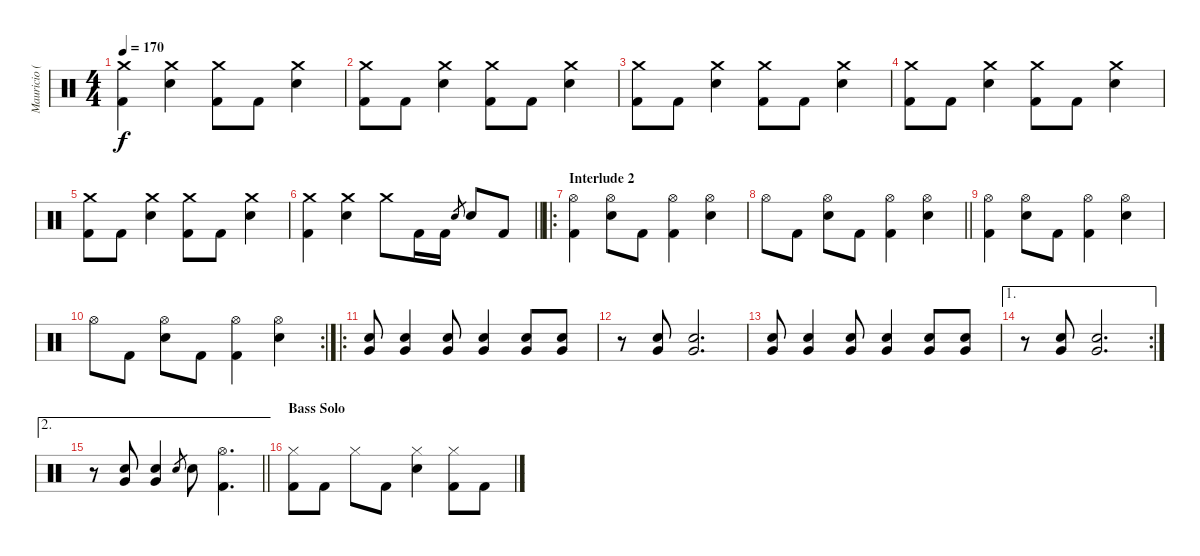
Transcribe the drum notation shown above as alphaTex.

\track ("Mauricio (Drum)" "Mauricio (") {instrument percussion}
\staff {score}
\articulation defaults
\ts (4 4)
\tempo 170
\clef neutral
\ks c
("Crash medium (hit)" "Kick (hit) 2").4{dy f} ("Crash medium (hit)" "Snare (hit) 2").4 ("Crash medium (hit)" "Kick (hit) 2").8 "Kick (hit) 2".8 ("Crash medium (hit)" "Snare (hit) 2").4 |
("Crash medium (hit)" "Kick (hit) 2").8 "Kick (hit) 2".8 ("Crash medium (hit)" "Snare (hit) 2").4 ("Crash medium (hit)" "Kick (hit) 2").8 "Kick (hit) 2".8 ("Crash medium (hit)" "Snare (hit) 2").4 |
("Crash medium (hit)" "Kick (hit) 2").8 "Kick (hit) 2".8 ("Crash medium (hit)" "Snare (hit) 2").4 ("Crash medium (hit)" "Kick (hit) 2").8 "Kick (hit) 2".8 ("Crash medium (hit)" "Snare (hit) 2").4 |
("Crash medium (hit)" "Kick (hit) 2").8 "Kick (hit) 2".8 ("Crash medium (hit)" "Snare (hit) 2").4 ("Crash medium (hit)" "Kick (hit) 2").8 "Kick (hit) 2".8 ("Crash medium (hit)" "Snare (hit) 2").4 |
("Crash medium (hit)" "Kick (hit) 2").8 "Kick (hit) 2".8 ("Crash medium (hit)" "Snare (hit) 2").4 ("Crash medium (hit)" "Kick (hit) 2").8 "Kick (hit) 2".8 ("Crash medium (hit)" "Snare (hit) 2").4 |
\barLineRight lightlight
("Crash medium (hit)" "Kick (hit) 2").4 ("Crash medium (hit)" "Snare (hit) 2").4 "Crash medium (hit)".8 "Kick (hit) 2".16 "Kick (hit) 2".16 "Snare (hit) 2".8{gr} "Snare (hit) 2".8 "Kick (hit) 2".8 |
\ro
\section ("" "Interlude 2")
("Hi-Hat (open)" "Kick (hit) 2").4 ("Hi-Hat (open)" "Snare (hit) 2").8 "Kick (hit) 2".8 ("Hi-Hat (open)" "Kick (hit) 2").4 ("Hi-Hat (open)" "Snare (hit) 2").4 |
\barLineRight lightlight "Hi-Hat (open)".8 "Kick (hit) 2".8
("Hi-Hat (open)" "Snare (hit) 2").8 "Kick (hit) 2".8 ("Hi-Hat (open)" "Kick (hit) 2").4 ("Hi-Hat (open)" "Snare (hit) 2").4 |
("Hi-Hat (open)" "Kick (hit) 2").4 ("Hi-Hat (open)" "Snare (hit) 2").8 "Kick (hit) 2".8 ("Hi-Hat (open)" "Kick (hit) 2").4 ("Hi-Hat (open)" "Snare (hit) 2").4 |
\rc 2 "Hi-Hat (open)".8 "Kick (hit) 2".8
("Hi-Hat (open)" "Snare (hit) 2").8 "Kick (hit) 2".8 ("Hi-Hat (open)" "Kick (hit) 2").4 ("Hi-Hat (open)" "Snare (hit) 2").4 |
\ro
("Very Low Tom (hit)" "Snare (hit) 2").8 ("Very Low Tom (hit)" "Snare (hit) 2").4 ("Very Low Tom (hit)" "Snare (hit) 2").8 ("Very Low Tom (hit)" "Snare (hit) 2").4 ("Very Low Tom (hit)" "Snare (hit) 2").8 ("Very Low Tom (hit)" "Snare (hit) 2").8 |
r.8 ("Very Low Tom (hit)" "Snare (hit) 2").8 ("Very Low Tom (hit)" "Snare (hit) 2").2{d} |
("Very Low Tom (hit)" "Snare (hit) 2").8 ("Very Low Tom (hit)" "Snare (hit) 2").4 ("Very Low Tom (hit)" "Snare (hit) 2").8 ("Very Low Tom (hit)" "Snare (hit) 2").4 ("Very Low Tom (hit)" "Snare (hit) 2").8 ("Very Low Tom (hit)" "Snare (hit) 2").8 |
\ae 1
\rc 2
r.8 ("Very Low Tom (hit)" "Snare (hit) 2").8 ("Very Low Tom (hit)" "Snare (hit) 2").2{d} |
\ae 2
\barLineRight lightlight
r.8 ("Very Low Tom (hit)" "Snare (hit) 2").8 ("Very Low Tom (hit)" "Snare (hit) 2").4 "Snare (hit) 2".8{gr} "Snare (hit) 2".8 ("Hi-Hat (open)" "Kick (hit) 2").4{d} |
\section ("" "Bass Solo")
("Hi-Hat (closed)" "Kick (hit) 2").8 "Kick (hit) 2".8 "Hi-Hat (closed)".8 "Kick (hit) 2".8 ("Hi-Hat (closed)" "Snare (hit) 2").4 ("Hi-Hat (closed)" "Kick (hit) 2").8 "Kick (hit) 2".8
